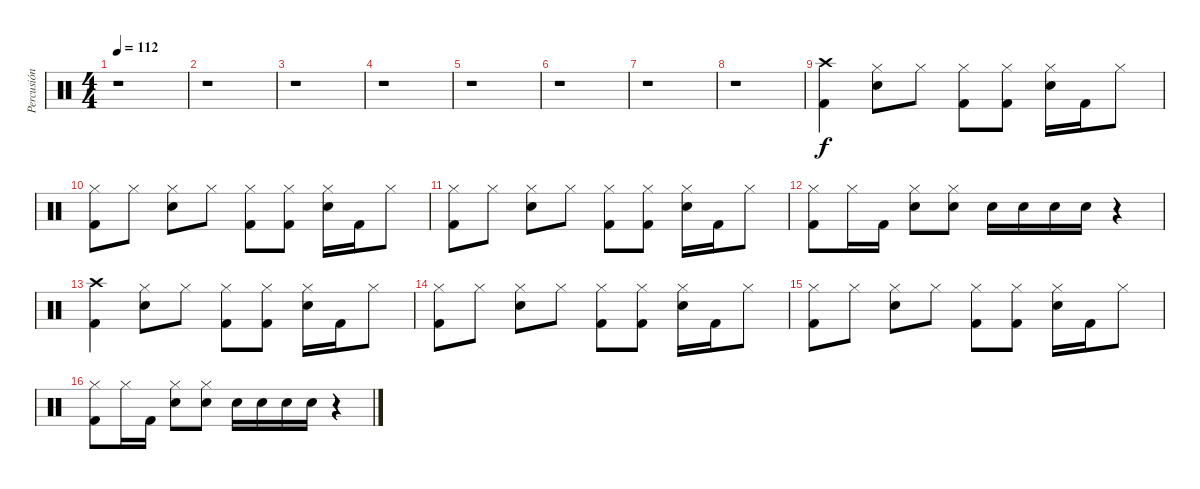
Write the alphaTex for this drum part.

\track ("Percusión" "Percusión") {instrument percussion}
\staff {score}
\articulation defaults
\ts (4 4)
\tempo 112
\clef neutral
\ks c
r.1{dy f} |
r.1 |
r.1 |
r.1 |
r.1 |
r.1 |
r.1 |
r.1 |
("Crash high (hit)" "Kick (hit) 2").4 ("Hi-Hat (closed)" "Electric Snare (hit)").8 "Hi-Hat (closed)".8 ("Hi-Hat (closed)" "Kick (hit) 2").8 ("Hi-Hat (closed)" "Kick (hit) 2").8 ("Hi-Hat (closed)" "Electric Snare (hit)").16 "Kick (hit) 2".16 "Hi-Hat (closed)".8 |
("Hi-Hat (closed)" "Kick (hit) 2").8 "Hi-Hat (closed)".8 ("Hi-Hat (closed)" "Electric Snare (hit)").8 "Hi-Hat (closed)".8 ("Hi-Hat (closed)" "Kick (hit) 2").8 ("Hi-Hat (closed)" "Kick (hit) 2").8 ("Hi-Hat (closed)" "Electric Snare (hit)").16 "Kick (hit) 2".16 "Hi-Hat (closed)".8 |
("Hi-Hat (closed)" "Kick (hit) 2").8 "Hi-Hat (closed)".8 ("Hi-Hat (closed)" "Electric Snare (hit)").8 "Hi-Hat (closed)".8 ("Hi-Hat (closed)" "Kick (hit) 2").8 ("Hi-Hat (closed)" "Kick (hit) 2").8 ("Hi-Hat (closed)" "Electric Snare (hit)").16 "Kick (hit) 2".16 "Hi-Hat (closed)".8 |
("Hi-Hat (closed)" "Kick (hit) 2").8 "Hi-Hat (closed)".16 "Kick (hit) 2".16 ("Hi-Hat (closed)" "Electric Snare (hit)").8 ("Hi-Hat (closed)" "Electric Snare (hit)").8 "Electric Snare (hit)".16 "Electric Snare (hit)".16 "Electric Snare (hit)".16 "Electric Snare (hit)".16 r.4 |
("Crash high (hit)" "Kick (hit) 2").4 ("Hi-Hat (closed)" "Electric Snare (hit)").8 "Hi-Hat (closed)".8 ("Hi-Hat (closed)" "Kick (hit) 2").8 ("Hi-Hat (closed)" "Kick (hit) 2").8 ("Hi-Hat (closed)" "Electric Snare (hit)").16 "Kick (hit) 2".16 "Hi-Hat (closed)".8 |
("Hi-Hat (closed)" "Kick (hit) 2").8 "Hi-Hat (closed)".8 ("Hi-Hat (closed)" "Electric Snare (hit)").8 "Hi-Hat (closed)".8 ("Hi-Hat (closed)" "Kick (hit) 2").8 ("Hi-Hat (closed)" "Kick (hit) 2").8 ("Hi-Hat (closed)" "Electric Snare (hit)").16 "Kick (hit) 2".16 "Hi-Hat (closed)".8 |
("Hi-Hat (closed)" "Kick (hit) 2").8 "Hi-Hat (closed)".8 ("Hi-Hat (closed)" "Electric Snare (hit)").8 "Hi-Hat (closed)".8 ("Hi-Hat (closed)" "Kick (hit) 2").8 ("Hi-Hat (closed)" "Kick (hit) 2").8 ("Hi-Hat (closed)" "Electric Snare (hit)").16 "Kick (hit) 2".16 "Hi-Hat (closed)".8 |
("Hi-Hat (closed)" "Kick (hit) 2").8 "Hi-Hat (closed)".16 "Kick (hit) 2".16 ("Hi-Hat (closed)" "Electric Snare (hit)").8 ("Hi-Hat (closed)" "Electric Snare (hit)").8 "Electric Snare (hit)".16 "Electric Snare (hit)".16 "Electric Snare (hit)".16 "Electric Snare (hit)".16 r.4
